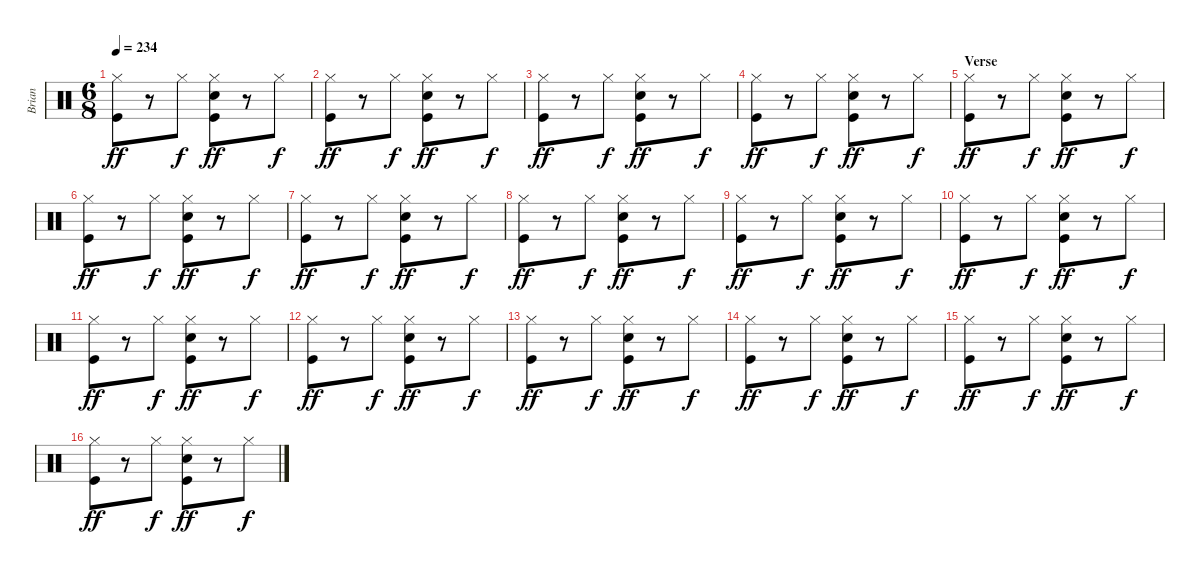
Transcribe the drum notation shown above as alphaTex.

\track ("Brian" "Brian") {instrument percussion}
\staff {score}
\articulation defaults
\ts (6 8)
\tempo 234
\clef neutral
\ks c
("Hi-Hat (closed)" "Kick (hit)").8{dy ff} r.8 "Hi-Hat (closed)".8{dy f} ("Hi-Hat (closed)" "Electric Snare (hit)" "Kick (hit)").8{dy ff} r.8 "Hi-Hat (closed)".8{dy f} |
("Hi-Hat (closed)" "Kick (hit)").8{dy ff} r.8 "Hi-Hat (closed)".8{dy f} ("Hi-Hat (closed)" "Electric Snare (hit)" "Kick (hit)").8{dy ff} r.8 "Hi-Hat (closed)".8{dy f} |
("Hi-Hat (closed)" "Kick (hit)").8{dy ff} r.8 "Hi-Hat (closed)".8{dy f} ("Hi-Hat (closed)" "Electric Snare (hit)" "Kick (hit)").8{dy ff} r.8 "Hi-Hat (closed)".8{dy f} |
("Hi-Hat (closed)" "Kick (hit)").8{dy ff} r.8 "Hi-Hat (closed)".8{dy f} ("Hi-Hat (closed)" "Electric Snare (hit)" "Kick (hit)").8{dy ff} r.8 "Hi-Hat (closed)".8{dy f} |
\section ("" "Verse")
("Hi-Hat (closed)" "Kick (hit)").8{dy ff} r.8 "Hi-Hat (closed)".8{dy f} ("Hi-Hat (closed)" "Electric Snare (hit)" "Kick (hit)").8{dy ff} r.8 "Hi-Hat (closed)".8{dy f} |
("Hi-Hat (closed)" "Kick (hit)").8{dy ff} r.8 "Hi-Hat (closed)".8{dy f} ("Hi-Hat (closed)" "Electric Snare (hit)" "Kick (hit)").8{dy ff} r.8 "Hi-Hat (closed)".8{dy f} |
("Hi-Hat (closed)" "Kick (hit)").8{dy ff} r.8 "Hi-Hat (closed)".8{dy f} ("Hi-Hat (closed)" "Electric Snare (hit)" "Kick (hit)").8{dy ff} r.8 "Hi-Hat (closed)".8{dy f} |
("Hi-Hat (closed)" "Kick (hit)").8{dy ff} r.8 "Hi-Hat (closed)".8{dy f} ("Hi-Hat (closed)" "Electric Snare (hit)" "Kick (hit)").8{dy ff} r.8 "Hi-Hat (closed)".8{dy f} |
("Hi-Hat (closed)" "Kick (hit)").8{dy ff} r.8 "Hi-Hat (closed)".8{dy f} ("Hi-Hat (closed)" "Electric Snare (hit)" "Kick (hit)").8{dy ff} r.8 "Hi-Hat (closed)".8{dy f} |
("Hi-Hat (closed)" "Kick (hit)").8{dy ff} r.8 "Hi-Hat (closed)".8{dy f} ("Hi-Hat (closed)" "Electric Snare (hit)" "Kick (hit)").8{dy ff} r.8 "Hi-Hat (closed)".8{dy f} |
("Hi-Hat (closed)" "Kick (hit)").8{dy ff} r.8 "Hi-Hat (closed)".8{dy f} ("Hi-Hat (closed)" "Electric Snare (hit)" "Kick (hit)").8{dy ff} r.8 "Hi-Hat (closed)".8{dy f} |
("Hi-Hat (closed)" "Kick (hit)").8{dy ff} r.8 "Hi-Hat (closed)".8{dy f} ("Hi-Hat (closed)" "Electric Snare (hit)" "Kick (hit)").8{dy ff} r.8 "Hi-Hat (closed)".8{dy f} |
("Hi-Hat (closed)" "Kick (hit)").8{dy ff} r.8 "Hi-Hat (closed)".8{dy f} ("Hi-Hat (closed)" "Electric Snare (hit)" "Kick (hit)").8{dy ff} r.8 "Hi-Hat (closed)".8{dy f} |
("Hi-Hat (closed)" "Kick (hit)").8{dy ff} r.8 "Hi-Hat (closed)".8{dy f} ("Hi-Hat (closed)" "Electric Snare (hit)" "Kick (hit)").8{dy ff} r.8 "Hi-Hat (closed)".8{dy f} |
("Hi-Hat (closed)" "Kick (hit)").8{dy ff} r.8 "Hi-Hat (closed)".8{dy f} ("Hi-Hat (closed)" "Electric Snare (hit)" "Kick (hit)").8{dy ff} r.8 "Hi-Hat (closed)".8{dy f} |
("Hi-Hat (closed)" "Kick (hit)").8{dy ff} r.8 "Hi-Hat (closed)".8{dy f} ("Hi-Hat (closed)" "Electric Snare (hit)" "Kick (hit)").8{dy ff} r.8 "Hi-Hat (closed)".8{dy f}
